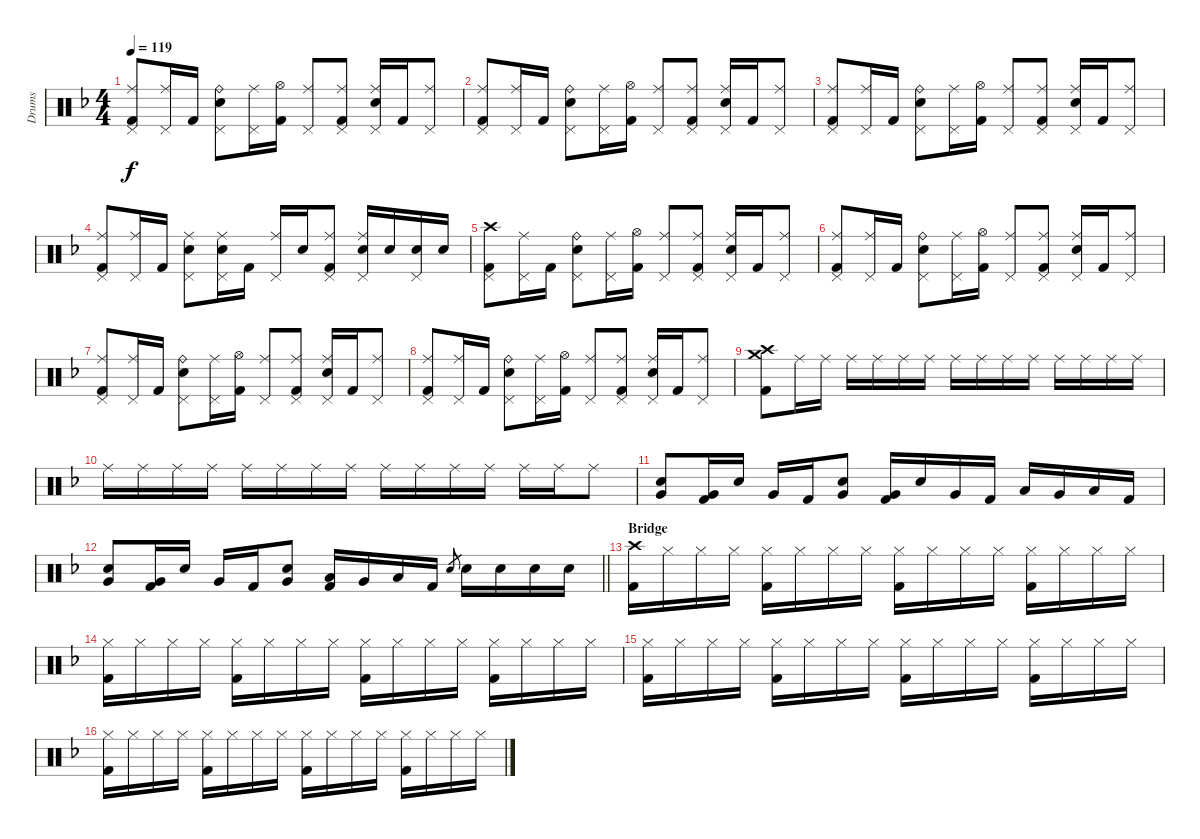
\track ("Drums" "Drums") {instrument percussion}
\staff {score}
\articulation defaults
\ts (4 4)
\tempo 119
\clef neutral
\ks dminor
("Ride (middle)" "Pedal Hi-Hat (hit)" "Kick (hit) 2").8{dy f} ("Ride (middle)" "Pedal Hi-Hat (hit)").16 "Kick (hit) 2".16 ("Ride (bell)" "Electric Snare (hit)" "Pedal Hi-Hat (hit)").8 ("Ride (middle)" "Pedal Hi-Hat (hit)").16 ("Hi-Hat (open)" "Kick (hit) 2").16 ("Ride (middle)" "Pedal Hi-Hat (hit)").8 ("Ride (middle)" "Pedal Hi-Hat (hit)" "Kick (hit) 2").8 ("Ride (middle)" "Electric Snare (hit)" "Pedal Hi-Hat (hit)").16 "Kick (hit) 2".16 ("Ride (middle)" "Pedal Hi-Hat (hit)").8 |
("Ride (middle)" "Pedal Hi-Hat (hit)" "Kick (hit) 2").8 ("Ride (middle)" "Pedal Hi-Hat (hit)").16 "Kick (hit) 2".16 ("Ride (bell)" "Electric Snare (hit)" "Pedal Hi-Hat (hit)").8 ("Ride (middle)" "Pedal Hi-Hat (hit)").16 ("Hi-Hat (open)" "Kick (hit) 2").16 ("Ride (middle)" "Pedal Hi-Hat (hit)").8 ("Ride (middle)" "Pedal Hi-Hat (hit)" "Kick (hit) 2").8 ("Ride (middle)" "Electric Snare (hit)" "Pedal Hi-Hat (hit)").16 "Kick (hit) 2".16 ("Ride (middle)" "Pedal Hi-Hat (hit)").8 |
("Ride (middle)" "Pedal Hi-Hat (hit)" "Kick (hit) 2").8 ("Ride (middle)" "Pedal Hi-Hat (hit)").16 "Kick (hit) 2".16 ("Ride (bell)" "Electric Snare (hit)" "Pedal Hi-Hat (hit)").8 ("Ride (middle)" "Pedal Hi-Hat (hit)").16 ("Hi-Hat (open)" "Kick (hit) 2").16 ("Ride (middle)" "Pedal Hi-Hat (hit)").8 ("Ride (middle)" "Pedal Hi-Hat (hit)" "Kick (hit) 2").8 ("Ride (middle)" "Electric Snare (hit)" "Pedal Hi-Hat (hit)").16 "Kick (hit) 2".16 ("Ride (middle)" "Pedal Hi-Hat (hit)").8 |
("Ride (middle)" "Pedal Hi-Hat (hit)" "Kick (hit) 2").8 ("Ride (middle)" "Pedal Hi-Hat (hit)").16 "Kick (hit) 2".16 ("Ride (middle)" "Electric Snare (hit)" "Pedal Hi-Hat (hit)").8 ("Ride (middle)" "Electric Snare (hit)" "Pedal Hi-Hat (hit)").16 "Kick (hit) 2".16 ("Ride (middle)" "Pedal Hi-Hat (hit)").16 "Electric Snare (hit)".16 ("Ride (middle)" "Pedal Hi-Hat (hit)" "Kick (hit) 2").8 ("Ride (middle)" "Electric Snare (hit)" "Pedal Hi-Hat (hit)").16 "Electric Snare (hit)".16 ("Electric Snare (hit)" "Pedal Hi-Hat (hit)").16 "Electric Snare (hit)".16 |
("Crash high (hit)" "Pedal Hi-Hat (hit)" "Kick (hit) 2").8 ("Ride (middle)" "Pedal Hi-Hat (hit)").16 "Kick (hit) 2".16 ("Ride (bell)" "Electric Snare (hit)" "Pedal Hi-Hat (hit)").8 ("Ride (middle)" "Pedal Hi-Hat (hit)").16 ("Hi-Hat (open)" "Kick (hit) 2").16 ("Ride (middle)" "Pedal Hi-Hat (hit)").8 ("Ride (middle)" "Pedal Hi-Hat (hit)" "Kick (hit) 2").8 ("Ride (middle)" "Electric Snare (hit)" "Pedal Hi-Hat (hit)").16 "Kick (hit) 2".16 ("Ride (middle)" "Pedal Hi-Hat (hit)").8 |
("Ride (middle)" "Pedal Hi-Hat (hit)" "Kick (hit) 2").8 ("Ride (middle)" "Pedal Hi-Hat (hit)").16 "Kick (hit) 2".16 ("Ride (bell)" "Electric Snare (hit)" "Pedal Hi-Hat (hit)").8 ("Ride (middle)" "Pedal Hi-Hat (hit)").16 ("Hi-Hat (open)" "Kick (hit) 2").16 ("Ride (middle)" "Pedal Hi-Hat (hit)").8 ("Ride (middle)" "Pedal Hi-Hat (hit)" "Kick (hit) 2").8 ("Ride (middle)" "Electric Snare (hit)" "Pedal Hi-Hat (hit)").16 "Kick (hit) 2".16 ("Ride (middle)" "Pedal Hi-Hat (hit)").8 |
("Ride (middle)" "Pedal Hi-Hat (hit)" "Kick (hit) 2").8 ("Ride (middle)" "Pedal Hi-Hat (hit)").16 "Kick (hit) 2".16 ("Ride (bell)" "Electric Snare (hit)" "Pedal Hi-Hat (hit)").8 ("Ride (middle)" "Pedal Hi-Hat (hit)").16 ("Hi-Hat (open)" "Kick (hit) 2").16 ("Ride (middle)" "Pedal Hi-Hat (hit)").8 ("Ride (middle)" "Pedal Hi-Hat (hit)" "Kick (hit) 2").8 ("Ride (middle)" "Electric Snare (hit)" "Pedal Hi-Hat (hit)").16 "Kick (hit) 2".16 ("Ride (middle)" "Pedal Hi-Hat (hit)").8 |
("Ride (middle)" "Pedal Hi-Hat (hit)" "Kick (hit) 2").8 ("Ride (middle)" "Pedal Hi-Hat (hit)").16 "Kick (hit) 2".16 ("Ride (bell)" "Electric Snare (hit)" "Pedal Hi-Hat (hit)").8 ("Ride (middle)" "Pedal Hi-Hat (hit)").16 ("Hi-Hat (open)" "Kick (hit) 2").16 ("Ride (middle)" "Pedal Hi-Hat (hit)").8 ("Ride (middle)" "Pedal Hi-Hat (hit)" "Kick (hit) 2").8 ("Ride (middle)" "Electric Snare (hit)" "Pedal Hi-Hat (hit)").16 "Kick (hit) 2".16 ("Ride (middle)" "Pedal Hi-Hat (hit)").8 |
("Crash high (hit)" "Crash medium (hit)" "Kick (hit) 2").8 "Ride (middle)".16 "Ride (middle)".16 "Ride (middle)".16 "Ride (middle)".16 "Ride (middle)".16 "Ride (middle)".16 "Ride (middle)".16 "Ride (middle)".16 "Ride (middle)".16 "Ride (middle)".16 "Ride (middle)".16 "Ride (middle)".16 "Ride (middle)".16 "Ride (middle)".16 |
"Ride (middle)".16 "Ride (middle)".16 "Ride (middle)".16 "Ride (middle)".16 "Ride (middle)".16 "Ride (middle)".16 "Ride (middle)".16 "Ride (middle)".16 "Ride (middle)".16 "Ride (middle)".16 "Ride (middle)".16 "Ride (middle)".16 "Ride (middle)".16 "Ride (middle)".16 "Ride (middle)".8 |
("Electric Snare (hit)" "Very Low Tom (hit)").8 ("Very Low Tom (hit)" "Kick (hit) 2").16 "Electric Snare (hit)".16 "Very Low Tom (hit)".16 "Kick (hit) 2".16 ("Electric Snare (hit)" "Very Low Tom (hit)").8 ("Very Low Tom (hit)" "Kick (hit) 2").16 "Electric Snare (hit)".16 "Very Low Tom (hit)".16 "Kick (hit) 2".16 "Low Floor Tom (hit)".16 "Very Low Tom (hit)".16 "Low Floor Tom (hit)".16 "Kick (hit) 2".16 |
\barLineRight lightlight
("Electric Snare (hit)" "Very Low Tom (hit)").8 ("Very Low Tom (hit)" "Kick (hit) 2").16 "Electric Snare (hit)".16 "Very Low Tom (hit)".16 "Kick (hit) 2".16 ("Electric Snare (hit)" "Very Low Tom (hit)").8 ("Low Floor Tom (hit)" "Kick (hit) 2").16 "Very Low Tom (hit)".16 "Low Floor Tom (hit)".16 "Kick (hit) 2".16 "Electric Snare (hit)".8{gr} "Electric Snare (hit)".16 "Electric Snare (hit)".16 "Electric Snare (hit)".16 "Electric Snare (hit)".16 |
\section ("" "Bridge")
("Crash high (hit)" "Kick (hit) 2").16 "Hi-Hat (closed)".16 "Hi-Hat (closed)".16 "Hi-Hat (closed)".16 ("Hi-Hat (closed)" "Kick (hit) 2").16 "Hi-Hat (closed)".16 "Hi-Hat (closed)".16 "Hi-Hat (closed)".16 ("Hi-Hat (closed)" "Kick (hit) 2").16 "Hi-Hat (closed)".16 "Hi-Hat (closed)".16 "Hi-Hat (closed)".16 ("Hi-Hat (closed)" "Kick (hit) 2").16 "Hi-Hat (closed)".16 "Hi-Hat (closed)".16 "Hi-Hat (closed)".16 |
("Hi-Hat (closed)" "Kick (hit) 2").16 "Hi-Hat (closed)".16 "Hi-Hat (closed)".16 "Hi-Hat (closed)".16 ("Hi-Hat (closed)" "Kick (hit) 2").16 "Hi-Hat (closed)".16 "Hi-Hat (closed)".16 "Hi-Hat (closed)".16 ("Hi-Hat (closed)" "Kick (hit) 2").16 "Hi-Hat (closed)".16 "Hi-Hat (closed)".16 "Hi-Hat (closed)".16 ("Hi-Hat (closed)" "Kick (hit) 2").16 "Hi-Hat (closed)".16 "Hi-Hat (closed)".16 "Hi-Hat (closed)".16 |
("Hi-Hat (closed)" "Kick (hit) 2").16 "Hi-Hat (closed)".16 "Hi-Hat (closed)".16 "Hi-Hat (closed)".16 ("Hi-Hat (closed)" "Kick (hit) 2").16 "Hi-Hat (closed)".16 "Hi-Hat (closed)".16 "Hi-Hat (closed)".16 ("Hi-Hat (closed)" "Kick (hit) 2").16 "Hi-Hat (closed)".16 "Hi-Hat (closed)".16 "Hi-Hat (closed)".16 ("Hi-Hat (closed)" "Kick (hit) 2").16 "Hi-Hat (closed)".16 "Hi-Hat (closed)".16 "Hi-Hat (closed)".16 |
("Hi-Hat (closed)" "Kick (hit) 2").16 "Hi-Hat (closed)".16 "Hi-Hat (closed)".16 "Hi-Hat (closed)".16 ("Hi-Hat (closed)" "Kick (hit) 2").16 "Hi-Hat (closed)".16 "Hi-Hat (closed)".16 "Hi-Hat (closed)".16 ("Hi-Hat (closed)" "Kick (hit) 2").16 "Hi-Hat (closed)".16 "Hi-Hat (closed)".16 "Hi-Hat (closed)".16 ("Hi-Hat (closed)" "Kick (hit) 2").16 "Hi-Hat (closed)".16 "Hi-Hat (closed)".16 "Hi-Hat (closed)".16
